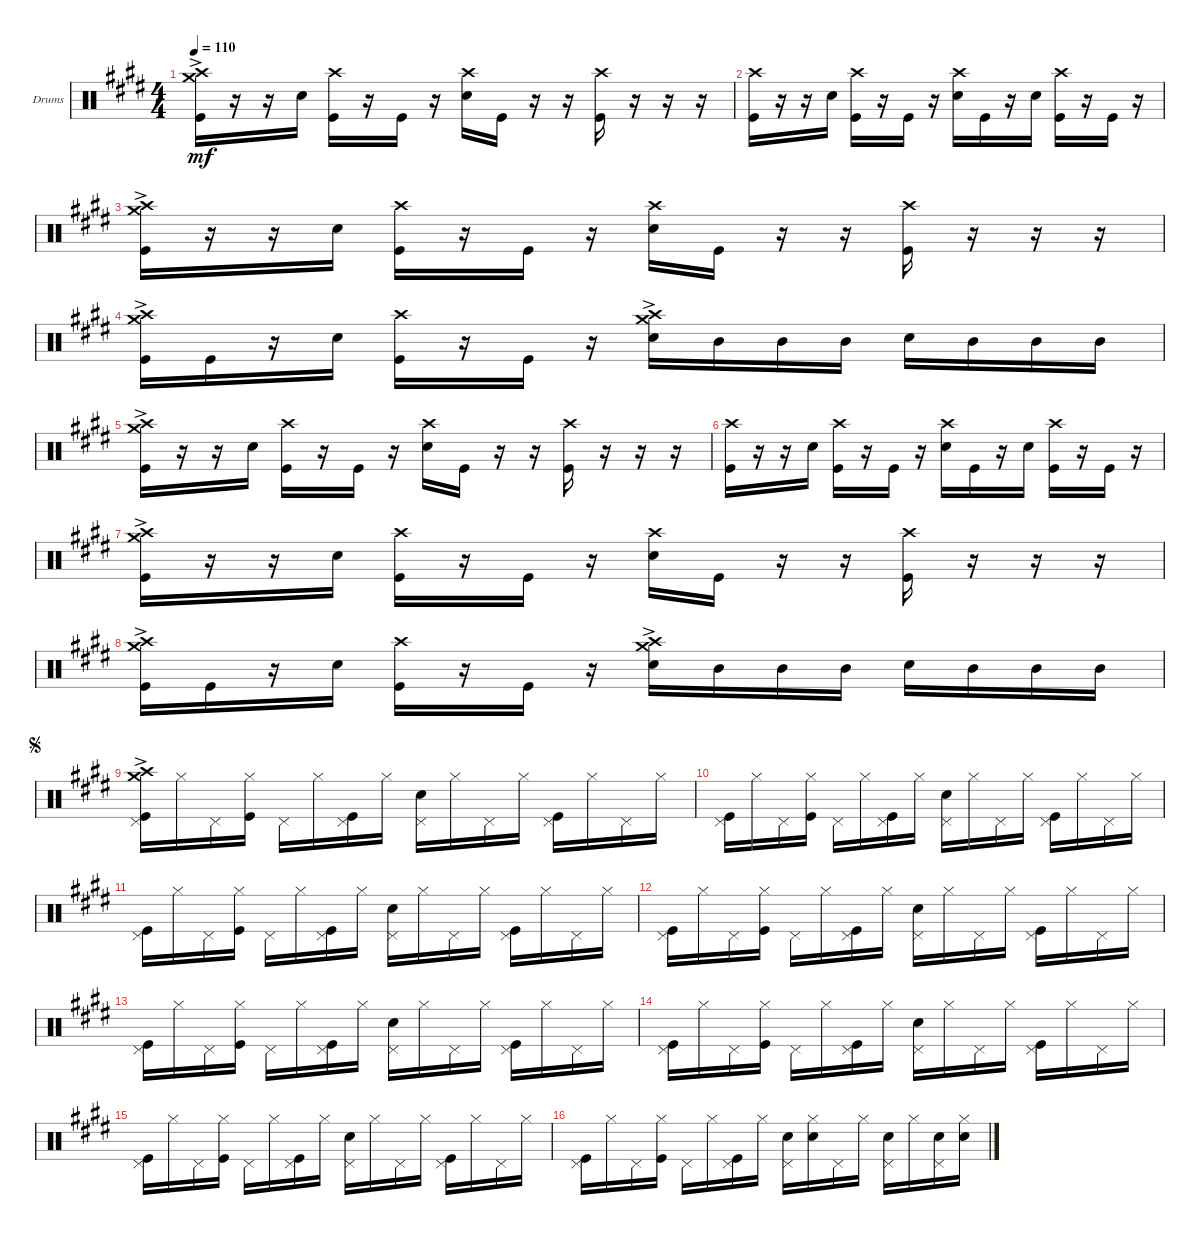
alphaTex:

\defaultSystemsLayout 4
\bracketExtendMode groupsimilarinstruments
\firstSystemTrackNameOrientation horizontal
\otherSystemsTrackNameOrientation horizontal
\track ("Drumkit" "Drums") {instrument percussion}
\staff {score}
\articulation defaults
\ts (4 4)
\tempo 110
\clef neutral
\scale
0.333333
\ks c#minor
("Kick (hit)" "Crash high (hit)"{ac} "Crash medium (hit)"{ac}).16{dy mf} r.16 r.16 "Snare (hit) 2".16 ("Kick (hit)" "Crash high (hit)").16 r.16 "Kick (hit)".16 r.16 ("Snare (hit) 2" "Crash high (hit)").16 "Kick (hit)".16 r.16 r.16 ("Kick (hit)" "Crash high (hit)").16 r.16 r.16 r.16 |
\scale
0.333333 ("Kick (hit)" "Crash high (hit)").16 r.16 r.16 "Snare (hit) 2".16 ("Kick (hit)" "Crash high (hit)").16 r.16 "Kick (hit)".16 r.16 ("Snare (hit) 2" "Crash high (hit)").16 "Kick (hit)".16 r.16 "Snare (hit) 2".16 ("Kick (hit)" "Crash high (hit)").16 r.16 "Kick (hit)".16 r.16 |
("Kick (hit)" "Crash high (hit)"{ac} "Crash medium (hit)"{ac}).16 r.16 r.16 "Snare (hit) 2".16 ("Kick (hit)" "Crash high (hit)").16 r.16 "Kick (hit)".16 r.16 ("Snare (hit) 2" "Crash high (hit)").16 "Kick (hit)".16 r.16 r.16 ("Kick (hit)" "Crash high (hit)").16 r.16 r.16 r.16 |
("Kick (hit)" "Crash medium (hit)"{ac} "Crash high (hit)"{ac}).16 "Kick (hit)".16 r.16 "Snare (hit) 2".16 ("Kick (hit)" "Crash high (hit)").16 r.16 "Kick (hit)".16 r.16 ("Snare (hit) 2" "Crash medium (hit)"{ac} "Crash high (hit)"{ac}).16 "Mid Tom (hit)".16 "Mid Tom (hit)".16 "Mid Tom (hit)".16 "Snare (hit) 2".16 "Mid Tom (hit)".16 "Mid Tom (hit)".16 "Mid Tom (hit)".16 |
("Kick (hit)" "Crash high (hit)"{ac} "Crash medium (hit)"{ac}).16 r.16 r.16 "Snare (hit) 2".16 ("Kick (hit)" "Crash high (hit)").16 r.16 "Kick (hit)".16 r.16 ("Snare (hit) 2" "Crash high (hit)").16 "Kick (hit)".16 r.16 r.16 ("Kick (hit)" "Crash high (hit)").16 r.16 r.16 r.16 |
("Kick (hit)" "Crash high (hit)").16 r.16 r.16 "Snare (hit) 2".16 ("Kick (hit)" "Crash high (hit)").16 r.16 "Kick (hit)".16 r.16 ("Snare (hit) 2" "Crash high (hit)").16 "Kick (hit)".16 r.16 "Snare (hit) 2".16 ("Kick (hit)" "Crash high (hit)").16 r.16 "Kick (hit)".16 r.16 |
("Kick (hit)" "Crash high (hit)"{ac} "Crash medium (hit)"{ac}).16 r.16 r.16 "Snare (hit) 2".16 ("Kick (hit)" "Crash high (hit)").16 r.16 "Kick (hit)".16 r.16 ("Snare (hit) 2" "Crash high (hit)").16 "Kick (hit)".16 r.16 r.16 ("Kick (hit)" "Crash high (hit)").16 r.16 r.16 r.16 |
("Kick (hit)" "Crash medium (hit)"{ac} "Crash high (hit)"{ac}).16 "Kick (hit)".16 r.16 "Snare (hit) 2".16 ("Kick (hit)" "Crash high (hit)").16 r.16 "Kick (hit)".16 r.16 ("Snare (hit) 2" "Crash medium (hit)"{ac} "Crash high (hit)"{ac}).16 "Mid Tom (hit)".16 "Mid Tom (hit)".16 "Mid Tom (hit)".16 "Snare (hit) 2".16 "Mid Tom (hit)".16 "Mid Tom (hit)".16 "Mid Tom (hit)".16 |
\jump segno
("Kick (hit)" "Pedal Hi-Hat (hit)" "Crash high (hit)"{ac} "Crash medium (hit)"{ac}).16 "Hi-Hat (closed)".16 "Pedal Hi-Hat (hit)".16 ("Kick (hit)" "Hi-Hat (closed)").16 "Pedal Hi-Hat (hit)".16 "Hi-Hat (closed)".16 ("Kick (hit)" "Pedal Hi-Hat (hit)").16 "Hi-Hat (closed)".16 ("Snare (hit) 2" "Pedal Hi-Hat (hit)").16 "Hi-Hat (closed)".16 "Pedal Hi-Hat (hit)".16 "Hi-Hat (closed)".16 ("Kick (hit)" "Pedal Hi-Hat (hit)").16 "Hi-Hat (closed)".16 "Pedal Hi-Hat (hit)".16 "Hi-Hat (closed)".16 |
("Kick (hit)" "Pedal Hi-Hat (hit)").16 "Hi-Hat (closed)".16 "Pedal Hi-Hat (hit)".16 ("Kick (hit)" "Hi-Hat (closed)").16 "Pedal Hi-Hat (hit)".16 "Hi-Hat (closed)".16 ("Kick (hit)" "Pedal Hi-Hat (hit)").16 "Hi-Hat (closed)".16 ("Snare (hit) 2" "Pedal Hi-Hat (hit)").16 "Hi-Hat (closed)".16 "Pedal Hi-Hat (hit)".16 "Hi-Hat (closed)".16 ("Kick (hit)" "Pedal Hi-Hat (hit)").16 "Hi-Hat (closed)".16 "Pedal Hi-Hat (hit)".16 "Hi-Hat (closed)".16 |
("Kick (hit)" "Pedal Hi-Hat (hit)").16 "Hi-Hat (closed)".16 "Pedal Hi-Hat (hit)".16 ("Kick (hit)" "Hi-Hat (closed)").16 "Pedal Hi-Hat (hit)".16 "Hi-Hat (closed)".16 ("Kick (hit)" "Pedal Hi-Hat (hit)").16 "Hi-Hat (closed)".16 ("Snare (hit) 2" "Pedal Hi-Hat (hit)").16 "Hi-Hat (closed)".16 "Pedal Hi-Hat (hit)".16 "Hi-Hat (closed)".16 ("Kick (hit)" "Pedal Hi-Hat (hit)").16 "Hi-Hat (closed)".16 "Pedal Hi-Hat (hit)".16 "Hi-Hat (closed)".16 |
("Kick (hit)" "Pedal Hi-Hat (hit)").16 "Hi-Hat (closed)".16 "Pedal Hi-Hat (hit)".16 ("Kick (hit)" "Hi-Hat (closed)").16 "Pedal Hi-Hat (hit)".16 "Hi-Hat (closed)".16 ("Kick (hit)" "Pedal Hi-Hat (hit)").16 "Hi-Hat (closed)".16 ("Snare (hit) 2" "Pedal Hi-Hat (hit)").16 "Hi-Hat (closed)".16 "Pedal Hi-Hat (hit)".16 "Hi-Hat (closed)".16 ("Kick (hit)" "Pedal Hi-Hat (hit)").16 "Hi-Hat (closed)".16 "Pedal Hi-Hat (hit)".16 "Hi-Hat (closed)".16 |
("Kick (hit)" "Pedal Hi-Hat (hit)").16 "Hi-Hat (closed)".16 "Pedal Hi-Hat (hit)".16 ("Kick (hit)" "Hi-Hat (closed)").16 "Pedal Hi-Hat (hit)".16 "Hi-Hat (closed)".16 ("Kick (hit)" "Pedal Hi-Hat (hit)").16 "Hi-Hat (closed)".16 ("Snare (hit) 2" "Pedal Hi-Hat (hit)").16 "Hi-Hat (closed)".16 "Pedal Hi-Hat (hit)".16 "Hi-Hat (closed)".16 ("Kick (hit)" "Pedal Hi-Hat (hit)").16 "Hi-Hat (closed)".16 "Pedal Hi-Hat (hit)".16 "Hi-Hat (closed)".16 |
("Kick (hit)" "Pedal Hi-Hat (hit)").16 "Hi-Hat (closed)".16 "Pedal Hi-Hat (hit)".16 ("Kick (hit)" "Hi-Hat (closed)").16 "Pedal Hi-Hat (hit)".16 "Hi-Hat (closed)".16 ("Kick (hit)" "Pedal Hi-Hat (hit)").16 "Hi-Hat (closed)".16 ("Snare (hit) 2" "Pedal Hi-Hat (hit)").16 "Hi-Hat (closed)".16 "Pedal Hi-Hat (hit)".16 "Hi-Hat (closed)".16 ("Kick (hit)" "Pedal Hi-Hat (hit)").16 "Hi-Hat (closed)".16 "Pedal Hi-Hat (hit)".16 "Hi-Hat (closed)".16 |
("Kick (hit)" "Pedal Hi-Hat (hit)").16 "Hi-Hat (closed)".16 "Pedal Hi-Hat (hit)".16 ("Kick (hit)" "Hi-Hat (closed)").16 "Pedal Hi-Hat (hit)".16 "Hi-Hat (closed)".16 ("Kick (hit)" "Pedal Hi-Hat (hit)").16 "Hi-Hat (closed)".16 ("Snare (hit) 2" "Pedal Hi-Hat (hit)").16 "Hi-Hat (closed)".16 "Pedal Hi-Hat (hit)".16 "Hi-Hat (closed)".16 ("Kick (hit)" "Pedal Hi-Hat (hit)").16 "Hi-Hat (closed)".16 "Pedal Hi-Hat (hit)".16 "Hi-Hat (closed)".16 |
("Kick (hit)" "Pedal Hi-Hat (hit)").16 "Hi-Hat (closed)".16 "Pedal Hi-Hat (hit)".16 ("Kick (hit)" "Hi-Hat (closed)").16 "Pedal Hi-Hat (hit)".16 "Hi-Hat (closed)".16 ("Kick (hit)" "Pedal Hi-Hat (hit)").16 "Hi-Hat (closed)".16 ("Snare (hit) 2" "Pedal Hi-Hat (hit)").16 ("Hi-Hat (closed)" "Snare (hit) 2").16 "Pedal Hi-Hat (hit)".16 "Hi-Hat (closed)".16 ("Pedal Hi-Hat (hit)" "Snare (hit) 2").16 "Hi-Hat (closed)".16 ("Pedal Hi-Hat (hit)" "Snare (hit) 2").16 ("Hi-Hat (closed)" "Snare (hit) 2").16
